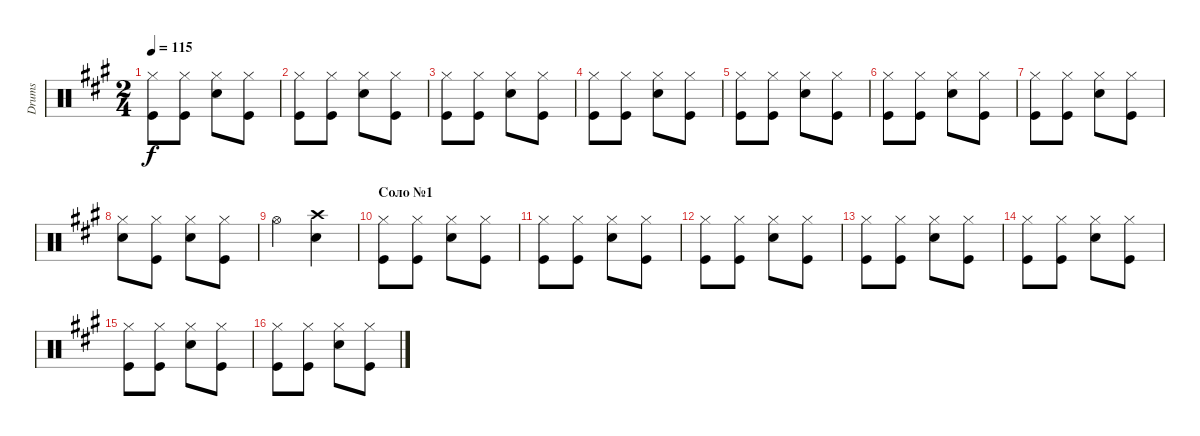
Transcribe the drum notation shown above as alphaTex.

\track ("Drums" "Drums") {instrument percussion}
\staff {score}
\articulation defaults
\ts (2 4)
\tempo 115
\clef neutral
\ks f#minor
("Hi-Hat (closed)" "Kick (hit)").8{dy f} ("Hi-Hat (closed)" "Kick (hit)").8 ("Hi-Hat (closed)" "Electric Snare (hit)").8 ("Hi-Hat (closed)" "Kick (hit)").8 |
("Hi-Hat (closed)" "Kick (hit)").8 ("Hi-Hat (closed)" "Kick (hit)").8 ("Hi-Hat (closed)" "Electric Snare (hit)").8 ("Hi-Hat (closed)" "Kick (hit)").8 |
("Hi-Hat (closed)" "Kick (hit)").8 ("Hi-Hat (closed)" "Kick (hit)").8 ("Hi-Hat (closed)" "Electric Snare (hit)").8 ("Hi-Hat (closed)" "Kick (hit)").8 |
("Hi-Hat (closed)" "Kick (hit)").8 ("Hi-Hat (closed)" "Kick (hit)").8 ("Hi-Hat (closed)" "Electric Snare (hit)").8 ("Hi-Hat (closed)" "Kick (hit)").8 |
("Hi-Hat (closed)" "Kick (hit)").8 ("Hi-Hat (closed)" "Kick (hit)").8 ("Hi-Hat (closed)" "Electric Snare (hit)").8 ("Hi-Hat (closed)" "Kick (hit)").8 |
("Hi-Hat (closed)" "Kick (hit)").8 ("Hi-Hat (closed)" "Kick (hit)").8 ("Hi-Hat (closed)" "Electric Snare (hit)").8 ("Hi-Hat (closed)" "Kick (hit)").8 |
("Hi-Hat (closed)" "Kick (hit)").8 ("Hi-Hat (closed)" "Kick (hit)").8 ("Hi-Hat (closed)" "Electric Snare (hit)").8 ("Hi-Hat (closed)" "Kick (hit)").8 |
("Hi-Hat (closed)" "Electric Snare (hit)").8 ("Hi-Hat (closed)" "Kick (hit)").8 ("Hi-Hat (closed)" "Electric Snare (hit)").8 ("Hi-Hat (closed)" "Kick (hit)").8 |
"Hi-Hat (open)".4 ("Electric Snare (hit)" "Crash high (hit)").4 |
\section ("" "Соло №1")
("Hi-Hat (closed)" "Kick (hit)").8 ("Hi-Hat (closed)" "Kick (hit)").8 ("Hi-Hat (closed)" "Electric Snare (hit)").8 ("Hi-Hat (closed)" "Kick (hit)").8 |
("Hi-Hat (closed)" "Kick (hit)").8 ("Hi-Hat (closed)" "Kick (hit)").8 ("Hi-Hat (closed)" "Electric Snare (hit)").8 ("Hi-Hat (closed)" "Kick (hit)").8 |
("Hi-Hat (closed)" "Kick (hit)").8 ("Hi-Hat (closed)" "Kick (hit)").8 ("Hi-Hat (closed)" "Electric Snare (hit)").8 ("Hi-Hat (closed)" "Kick (hit)").8 |
("Hi-Hat (closed)" "Kick (hit)").8 ("Hi-Hat (closed)" "Kick (hit)").8 ("Hi-Hat (closed)" "Electric Snare (hit)").8 ("Hi-Hat (closed)" "Kick (hit)").8 |
("Hi-Hat (closed)" "Kick (hit)").8 ("Hi-Hat (closed)" "Kick (hit)").8 ("Hi-Hat (closed)" "Electric Snare (hit)").8 ("Hi-Hat (closed)" "Kick (hit)").8 |
("Hi-Hat (closed)" "Kick (hit)").8 ("Hi-Hat (closed)" "Kick (hit)").8 ("Hi-Hat (closed)" "Electric Snare (hit)").8 ("Hi-Hat (closed)" "Kick (hit)").8 |
("Hi-Hat (closed)" "Kick (hit)").8 ("Hi-Hat (closed)" "Kick (hit)").8 ("Hi-Hat (closed)" "Electric Snare (hit)").8 ("Hi-Hat (closed)" "Kick (hit)").8
